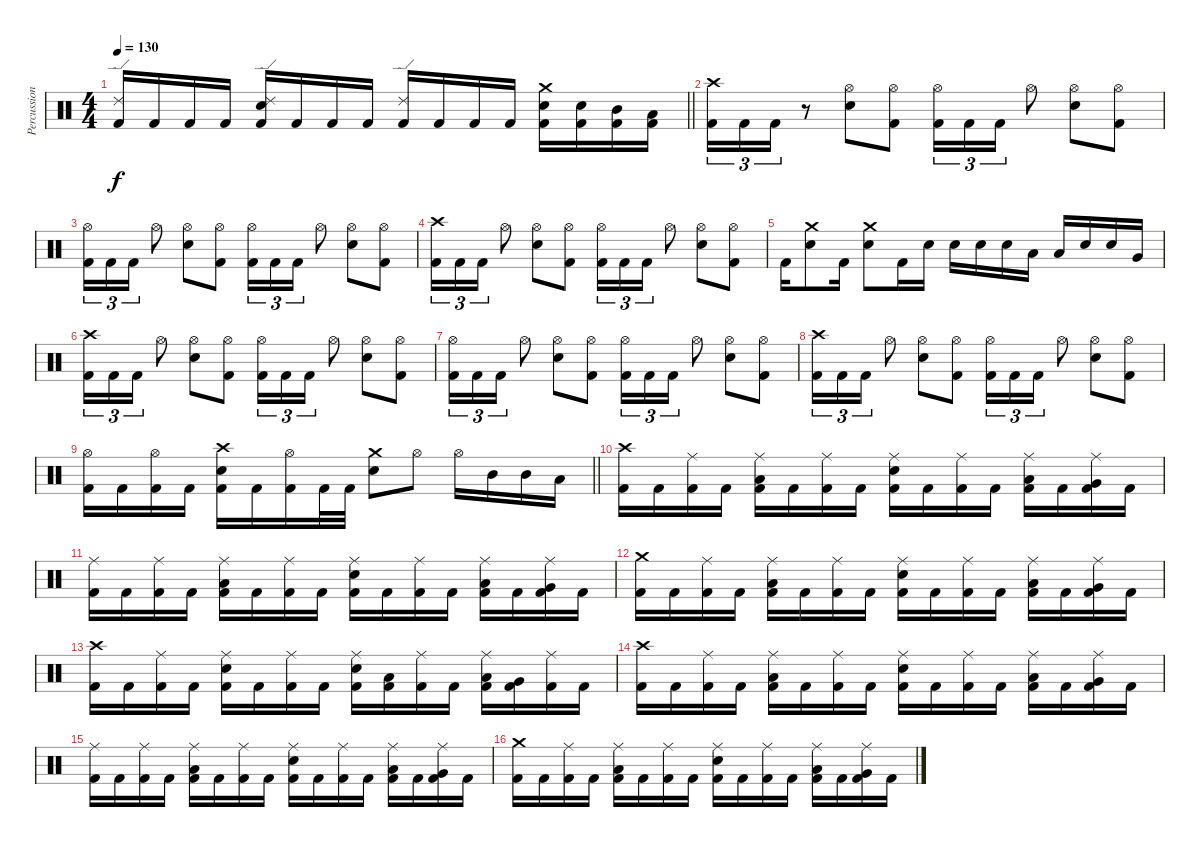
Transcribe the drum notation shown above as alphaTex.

\track ("Percussion" "Percussion") {instrument percussion}
\staff {score}
\articulation defaults
\ts (4 4)
\tempo 130
\clef neutral
\barLineRight lightlight
\ks c
("Ride (edge) 2" "Kick (hit) 2").16{dy f} "Kick (hit) 2".16 "Kick (hit) 2".16 "Kick (hit) 2".16 ("Ride (edge) 2" "Electric Snare (hit)" "Kick (hit) 2").16 "Kick (hit) 2".16 "Kick (hit) 2".16 "Kick (hit) 2".16 ("Ride (edge) 2" "Kick (hit) 2").16 "Kick (hit) 2".16 "Kick (hit) 2".16 "Kick (hit) 2".16 ("Crash medium (hit)" "Electric Snare (hit)" "Kick (hit) 2").16 ("Electric Snare (hit)" "Kick (hit) 2").16 ("Mid Tom (hit)" "Kick (hit) 2").16 ("Low Tom (hit)" "Kick (hit) 2").16 |
("Crash high (hit)" "Kick (hit) 2").16{tu (3 2)} "Kick (hit) 2".16{tu (3 2)} "Kick (hit) 2".16{tu (3 2)} r.8 ("Hi-Hat (open)" "Electric Snare (hit)").8 ("Hi-Hat (open)" "Kick (hit) 2").8 ("Hi-Hat (open)" "Kick (hit) 2").16{tu (3 2)} "Kick (hit) 2".16{tu (3 2)} "Kick (hit) 2".16{tu (3 2)} "Hi-Hat (open)".8 ("Hi-Hat (open)" "Electric Snare (hit)").8 ("Hi-Hat (open)" "Kick (hit) 2").8 |
("Hi-Hat (open)" "Kick (hit) 2").16{tu (3 2)} "Kick (hit) 2".16{tu (3 2)} "Kick (hit) 2".16{tu (3 2)} "Hi-Hat (open)".8 ("Hi-Hat (open)" "Electric Snare (hit)").8 ("Hi-Hat (open)" "Kick (hit) 2").8 ("Hi-Hat (open)" "Kick (hit) 2").16{tu (3 2)} "Kick (hit) 2".16{tu (3 2)} "Kick (hit) 2".16{tu (3 2)} "Hi-Hat (open)".8 ("Hi-Hat (open)" "Electric Snare (hit)").8 ("Hi-Hat (open)" "Kick (hit) 2").8 |
("Crash high (hit)" "Kick (hit) 2").16{tu (3 2)} "Kick (hit) 2".16{tu (3 2)} "Kick (hit) 2".16{tu (3 2)} "Hi-Hat (open)".8 ("Hi-Hat (open)" "Electric Snare (hit)").8 ("Hi-Hat (open)" "Kick (hit) 2").8 ("Hi-Hat (open)" "Kick (hit) 2").16{tu (3 2)} "Kick (hit) 2".16{tu (3 2)} "Kick (hit) 2".16{tu (3 2)} "Hi-Hat (open)".8 ("Hi-Hat (open)" "Electric Snare (hit)").8 ("Hi-Hat (open)" "Kick (hit) 2").8 |
"Kick (hit) 2".16 ("Crash medium (hit)" "Electric Snare (hit)").8 "Kick (hit) 2".16 ("Crash medium (hit)" "Electric Snare (hit)").8 "Kick (hit) 2".16 "Electric Snare (hit)".16 "Electric Snare (hit)".16 "Electric Snare (hit)".16 "Electric Snare (hit)".16 "Low Tom (hit)".16 "Low Tom (hit)".16 "Electric Snare (hit)".16 "Electric Snare (hit)".16 "Very Low Tom (hit)".16 |
("Crash high (hit)" "Kick (hit) 2").16{tu (3 2)} "Kick (hit) 2".16{tu (3 2)} "Kick (hit) 2".16{tu (3 2)} "Hi-Hat (open)".8 ("Hi-Hat (open)" "Electric Snare (hit)").8 ("Hi-Hat (open)" "Kick (hit) 2").8 ("Hi-Hat (open)" "Kick (hit) 2").16{tu (3 2)} "Kick (hit) 2".16{tu (3 2)} "Kick (hit) 2".16{tu (3 2)} "Hi-Hat (open)".8 ("Hi-Hat (open)" "Electric Snare (hit)").8 ("Hi-Hat (open)" "Kick (hit) 2").8 |
("Hi-Hat (open)" "Kick (hit) 2").16{tu (3 2)} "Kick (hit) 2".16{tu (3 2)} "Kick (hit) 2".16{tu (3 2)} "Hi-Hat (open)".8 ("Hi-Hat (open)" "Electric Snare (hit)").8 ("Hi-Hat (open)" "Kick (hit) 2").8 ("Hi-Hat (open)" "Kick (hit) 2").16{tu (3 2)} "Kick (hit) 2".16{tu (3 2)} "Kick (hit) 2".16{tu (3 2)} "Hi-Hat (open)".8 ("Hi-Hat (open)" "Electric Snare (hit)").8 ("Hi-Hat (open)" "Kick (hit) 2").8 |
("Crash high (hit)" "Kick (hit) 2").16{tu (3 2)} "Kick (hit) 2".16{tu (3 2)} "Kick (hit) 2".16{tu (3 2)} "Hi-Hat (open)".8 ("Hi-Hat (open)" "Electric Snare (hit)").8 ("Hi-Hat (open)" "Kick (hit) 2").8 ("Hi-Hat (open)" "Kick (hit) 2").16{tu (3 2)} "Kick (hit) 2".16{tu (3 2)} "Kick (hit) 2".16{tu (3 2)} "Hi-Hat (open)".8 ("Hi-Hat (open)" "Electric Snare (hit)").8 ("Hi-Hat (open)" "Kick (hit) 2").8 |
\barLineRight lightlight
("Hi-Hat (open)" "Kick (hit) 2").16 "Kick (hit) 2".16 ("Hi-Hat (open)" "Kick (hit) 2").16 "Kick (hit) 2".16 ("Crash high (hit)" "Electric Snare (hit)" "Kick (hit) 2").16 "Kick (hit) 2".16 ("Hi-Hat (open)" "Kick (hit) 2").16 "Kick (hit) 2".32 "Kick (hit) 2".32 ("Crash medium (hit)" "Electric Snare (hit)").8 "Hi-Hat (open)".8 "Hi-Hat (open)".16 "Mid Tom (hit)".16 "Mid Tom (hit)".16 "Low Tom (hit)".16 |
("Crash high (hit)" "Kick (hit) 2").16 "Kick (hit) 2".16 ("Ride (middle)" "Kick (hit) 2").16 "Kick (hit) 2".16 ("Ride (middle)" "Low Tom (hit)" "Kick (hit) 2").16 "Kick (hit) 2".16 ("Ride (middle)" "Kick (hit) 2").16 "Kick (hit) 2".16 ("Ride (middle)" "Electric Snare (hit)" "Kick (hit) 2").16 "Kick (hit) 2".16 ("Ride (middle)" "Kick (hit) 2").16 "Kick (hit) 2".16 ("Ride (middle)" "Low Tom (hit)" "Kick (hit) 2").16 "Kick (hit) 2".16 ("Ride (middle)" "Very Low Tom (hit)" "Kick (hit) 2").16 "Kick (hit) 2".16 |
("Ride (middle)" "Kick (hit) 2").16 "Kick (hit) 2".16 ("Ride (middle)" "Kick (hit) 2").16 "Kick (hit) 2".16 ("Ride (middle)" "Low Tom (hit)" "Kick (hit) 2").16 "Kick (hit) 2".16 ("Ride (middle)" "Kick (hit) 2").16 "Kick (hit) 2".16 ("Ride (middle)" "Electric Snare (hit)" "Kick (hit) 2").16 "Kick (hit) 2".16 ("Ride (middle)" "Kick (hit) 2").16 "Kick (hit) 2".16 ("Ride (middle)" "Low Tom (hit)" "Kick (hit) 2").16 "Kick (hit) 2".16 ("Ride (middle)" "Very Low Tom (hit)" "Kick (hit) 2").16 "Kick (hit) 2".16 |
("Crash medium (hit)" "Kick (hit) 2").16 "Kick (hit) 2".16 ("Ride (middle)" "Kick (hit) 2").16 "Kick (hit) 2".16 ("Ride (middle)" "Low Tom (hit)" "Kick (hit) 2").16 "Kick (hit) 2".16 ("Ride (middle)" "Kick (hit) 2").16 "Kick (hit) 2".16 ("Ride (middle)" "Electric Snare (hit)" "Kick (hit) 2").16 "Kick (hit) 2".16 ("Ride (middle)" "Kick (hit) 2").16 "Kick (hit) 2".16 ("Ride (middle)" "Low Tom (hit)" "Kick (hit) 2").16 "Kick (hit) 2".16 ("Ride (middle)" "Very Low Tom (hit)" "Kick (hit) 2").16 "Kick (hit) 2".16 |
("Crash high (hit)" "Kick (hit) 2").16 "Kick (hit) 2".16 ("Ride (middle)" "Kick (hit) 2").16 "Kick (hit) 2".16 ("Ride (middle)" "Electric Snare (hit)" "Kick (hit) 2").16 "Kick (hit) 2".16 ("Ride (middle)" "Kick (hit) 2").16 "Kick (hit) 2".16 ("Ride (middle)" "Electric Snare (hit)" "Kick (hit) 2").16 ("Low Tom (hit)" "Kick (hit) 2").16 ("Ride (middle)" "Kick (hit) 2").16 "Kick (hit) 2".16 ("Ride (middle)" "Low Tom (hit)" "Kick (hit) 2").16 ("Very Low Tom (hit)" "Kick (hit) 2").16 ("Ride (middle)" "Kick (hit) 2").16 "Kick (hit) 2".16 |
("Crash high (hit)" "Kick (hit) 2").16 "Kick (hit) 2".16 ("Ride (middle)" "Kick (hit) 2").16 "Kick (hit) 2".16 ("Ride (middle)" "Low Tom (hit)" "Kick (hit) 2").16 "Kick (hit) 2".16 ("Ride (middle)" "Kick (hit) 2").16 "Kick (hit) 2".16 ("Ride (middle)" "Electric Snare (hit)" "Kick (hit) 2").16 "Kick (hit) 2".16 ("Ride (middle)" "Kick (hit) 2").16 "Kick (hit) 2".16 ("Ride (middle)" "Low Tom (hit)" "Kick (hit) 2").16 "Kick (hit) 2".16 ("Ride (middle)" "Very Low Tom (hit)" "Kick (hit) 2").16 "Kick (hit) 2".16 |
("Ride (middle)" "Kick (hit) 2").16 "Kick (hit) 2".16 ("Ride (middle)" "Kick (hit) 2").16 "Kick (hit) 2".16 ("Ride (middle)" "Low Tom (hit)" "Kick (hit) 2").16 "Kick (hit) 2".16 ("Ride (middle)" "Kick (hit) 2").16 "Kick (hit) 2".16 ("Ride (middle)" "Electric Snare (hit)" "Kick (hit) 2").16 "Kick (hit) 2".16 ("Ride (middle)" "Kick (hit) 2").16 "Kick (hit) 2".16 ("Ride (middle)" "Low Tom (hit)" "Kick (hit) 2").16 "Kick (hit) 2".16 ("Ride (middle)" "Very Low Tom (hit)" "Kick (hit) 2").16 "Kick (hit) 2".16 |
("Crash medium (hit)" "Kick (hit) 2").16 "Kick (hit) 2".16 ("Ride (middle)" "Kick (hit) 2").16 "Kick (hit) 2".16 ("Ride (middle)" "Low Tom (hit)" "Kick (hit) 2").16 "Kick (hit) 2".16 ("Ride (middle)" "Kick (hit) 2").16 "Kick (hit) 2".16 ("Ride (middle)" "Electric Snare (hit)" "Kick (hit) 2").16 "Kick (hit) 2".16 ("Ride (middle)" "Kick (hit) 2").16 "Kick (hit) 2".16 ("Ride (middle)" "Low Tom (hit)" "Kick (hit) 2").16 "Kick (hit) 2".16 ("Ride (middle)" "Very Low Tom (hit)" "Kick (hit) 2").16 "Kick (hit) 2".16
